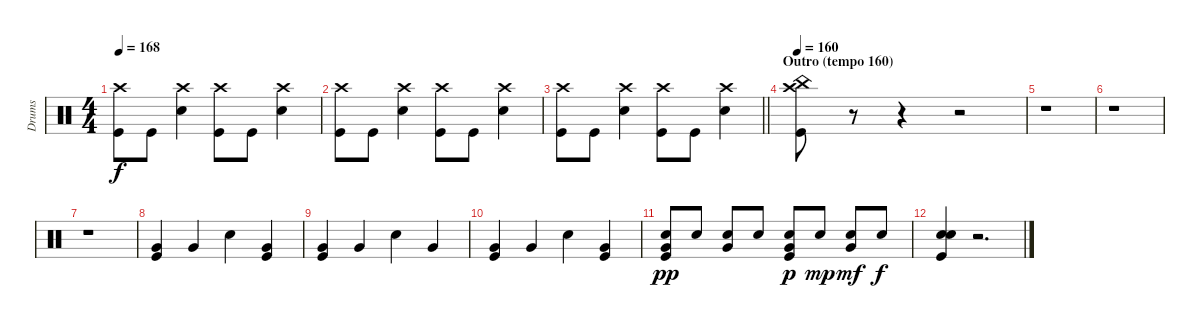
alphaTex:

\track ("Drums" "Drums") {instrument percussion}
\staff {score}
\articulation defaults
\ts (4 4)
\tempo 168
\clef neutral
\ks c
("Crash high (hit)" "Kick (hit)").8{dy f} "Kick (hit)".8 ("Crash high (hit)" "Snare (hit) 2").4 ("Crash high (hit)" "Kick (hit)").8 "Kick (hit)".8 ("Crash high (hit)" "Snare (hit) 2").4 |
("Crash high (hit)" "Kick (hit)").8 "Kick (hit)".8 ("Crash high (hit)" "Snare (hit) 2").4 ("Crash high (hit)" "Kick (hit)").8 "Kick (hit)".8 ("Crash high (hit)" "Snare (hit) 2").4 |
\barLineRight lightlight
("Crash high (hit)" "Kick (hit)").8 "Kick (hit)".8 ("Crash high (hit)" "Snare (hit) 2").4 ("Crash high (hit)" "Kick (hit)").8 "Kick (hit)".8 ("Crash high (hit)" "Snare (hit) 2").4 |
\section ("" "Outro (tempo 160)")
\tempo 160
("Crash high (hit)" "China (hit)" "Kick (hit)").8 r.8 r.4 r.2 |
r.1 |
r.1 |
r.1 |
("Very Low Tom (hit)" "Kick (hit)").4 "Very Low Tom (hit)".4 "Snare (hit) 2".4 ("Very Low Tom (hit)" "Kick (hit)").4 |
("Very Low Tom (hit)" "Kick (hit)").4 "Very Low Tom (hit)".4 "Snare (hit) 2".4 "Very Low Tom (hit)".4 |
("Very Low Tom (hit)" "Kick (hit)").4 "Very Low Tom (hit)".4 "Snare (hit) 2".4 ("Very Low Tom (hit)" "Kick (hit)").4 |
("Very Low Tom (hit)" "Snare (hit) 2" "Kick (hit)").8{dy pp} "Snare (hit) 2".8 ("Very Low Tom (hit)" "Snare (hit) 2").8 "Snare (hit) 2".8 ("Very Low Tom (hit)" "Snare (hit) 2" "Kick (hit)").8{dy p} "Snare (hit) 2".8{dy mp} ("Very Low Tom (hit)" "Snare (hit) 2").8{dy mf} "Snare (hit) 2".8{dy f} |
("Snare (hit) 2" "Snare (hit) 2" "Kick (hit)").4{bd 120} r.2{d}
